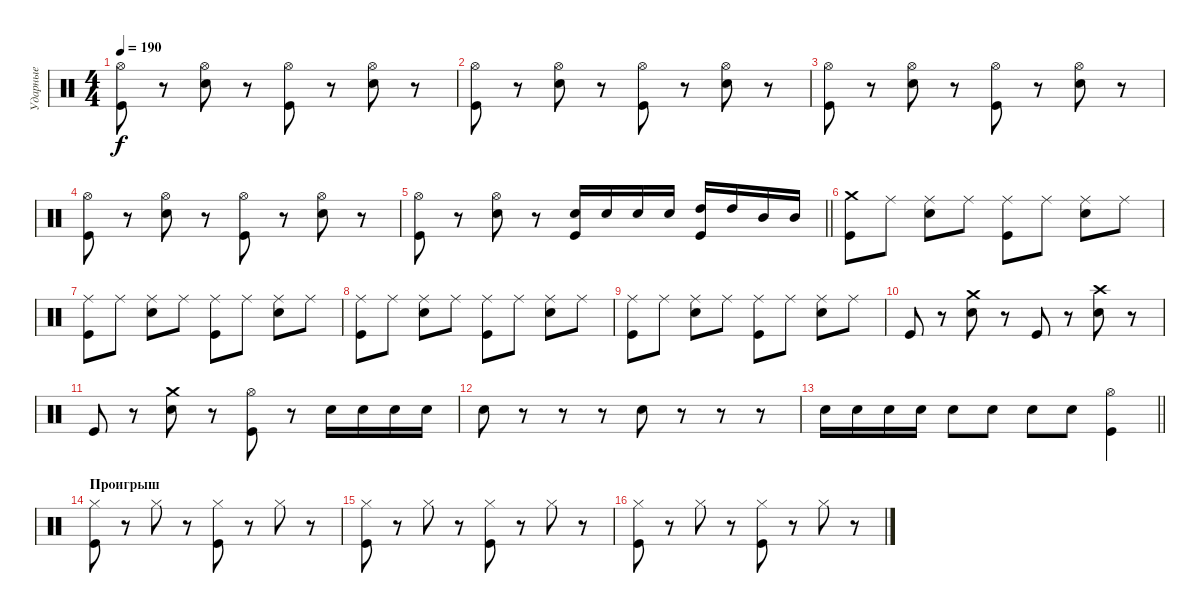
\track ("Ударные" "Ударные") {instrument percussion}
\staff {score}
\articulation defaults
\ts (4 4)
\tempo 190
\clef neutral
\ks c
("Hi-Hat (open)" "Kick (hit)").8{dy f} r.8 ("Hi-Hat (open)" "Electric Snare (hit)").8 r.8 ("Hi-Hat (open)" "Kick (hit)").8 r.8 ("Hi-Hat (open)" "Electric Snare (hit)").8 r.8 |
("Hi-Hat (open)" "Kick (hit)").8 r.8 ("Hi-Hat (open)" "Electric Snare (hit)").8 r.8 ("Hi-Hat (open)" "Kick (hit)").8 r.8 ("Hi-Hat (open)" "Electric Snare (hit)").8 r.8 |
("Hi-Hat (open)" "Kick (hit)").8 r.8 ("Hi-Hat (open)" "Electric Snare (hit)").8 r.8 ("Hi-Hat (open)" "Kick (hit)").8 r.8 ("Hi-Hat (open)" "Electric Snare (hit)").8 r.8 |
("Hi-Hat (open)" "Kick (hit)").8 r.8 ("Hi-Hat (open)" "Electric Snare (hit)").8 r.8 ("Hi-Hat (open)" "Kick (hit)").8 r.8 ("Hi-Hat (open)" "Electric Snare (hit)").8 r.8 |
\barLineRight lightlight
("Hi-Hat (open)" "Kick (hit)").8 r.8 ("Hi-Hat (open)" "Electric Snare (hit)").8 r.8 ("Electric Snare (hit)" "Kick (hit)").16 "Electric Snare (hit)".16 "Electric Snare (hit)".16 "Electric Snare (hit)".16 ("High Tom (hit)" "Kick (hit)").16 "High Tom (hit)".16 "Mid Tom (hit)".16 "Mid Tom (hit)".16 |
\section ("" " ")
("Crash medium (hit)" "Kick (hit)").8 "Ride (middle)".8 ("Ride (middle)" "Electric Snare (hit)").8 "Ride (middle)".8 ("Ride (middle)" "Kick (hit)").8 "Ride (middle)".8 ("Ride (middle)" "Electric Snare (hit)").8 "Ride (middle)".8 |
("Ride (middle)" "Kick (hit)").8 "Ride (middle)".8 ("Ride (middle)" "Electric Snare (hit)").8 "Ride (middle)".8 ("Ride (middle)" "Kick (hit)").8 "Ride (middle)".8 ("Ride (middle)" "Electric Snare (hit)").8 "Ride (middle)".8 |
("Ride (middle)" "Kick (hit)").8 "Ride (middle)".8 ("Ride (middle)" "Electric Snare (hit)").8 "Ride (middle)".8 ("Ride (middle)" "Kick (hit)").8 "Ride (middle)".8 ("Ride (middle)" "Electric Snare (hit)").8 "Ride (middle)".8 |
("Ride (middle)" "Kick (hit)").8 "Ride (middle)".8 ("Ride (middle)" "Electric Snare (hit)").8 "Ride (middle)".8 ("Ride (middle)" "Kick (hit)").8 "Ride (middle)".8 ("Ride (middle)" "Electric Snare (hit)").8 "Ride (middle)".8 |
"Kick (hit)".8 r.8 ("Crash medium (hit)" "Electric Snare (hit)").8 r.8 "Kick (hit)".8 r.8 ("Crash high (hit)" "Electric Snare (hit)").8 r.8 |
"Kick (hit)".8 r.8 ("Crash medium (hit)" "Electric Snare (hit)").8 r.8 ("Hi-Hat (open)" "Kick (hit)").8 r.8 "Electric Snare (hit)".16 "Electric Snare (hit)".16 "Electric Snare (hit)".16 "Electric Snare (hit)".16 |
"Electric Snare (hit)".8 r.8 r.8 r.8 "Electric Snare (hit)".8 r.8 r.8 r.8 |
\barLineRight lightlight "Electric Snare (hit)".16 "Electric Snare (hit)".16 "Electric Snare (hit)".16 "Electric Snare (hit)".16 "Electric Snare (hit)".8 "Electric Snare (hit)".8 "Electric Snare (hit)".8 "Electric Snare (hit)".8
("Hi-Hat (open)" "Kick (hit)").4 |
\section ("" "Проигрыш")
("Hi-Hat (closed)" "Kick (hit)").8 r.8 "Hi-Hat (closed)".8 r.8 ("Hi-Hat (closed)" "Kick (hit)").8 r.8 "Hi-Hat (closed)".8 r.8 |
("Hi-Hat (closed)" "Kick (hit)").8 r.8 "Hi-Hat (closed)".8 r.8 ("Hi-Hat (closed)" "Kick (hit)").8 r.8 "Hi-Hat (closed)".8 r.8 |
("Hi-Hat (closed)" "Kick (hit)").8 r.8 "Hi-Hat (closed)".8 r.8 ("Hi-Hat (closed)" "Kick (hit)").8 r.8 "Hi-Hat (closed)".8 r.8
